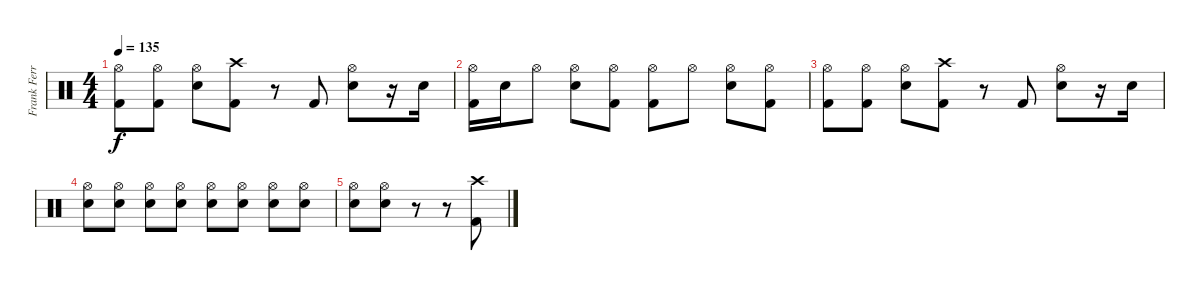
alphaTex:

\track ("Frank Ferrer" "Frank Ferr") {instrument percussion}
\staff {score}
\articulation defaults
\ts (4 4)
\tempo 135
\clef neutral
\ks c
("Hi-Hat (open)" "Kick (hit) 2").8{dy f} ("Hi-Hat (open)" "Kick (hit) 2").8 ("Hi-Hat (open)" "Electric Snare (hit)").8 ("Crash high (hit)" "Kick (hit) 2").8 r.8 "Kick (hit) 2".8 ("Hi-Hat (open)" "Electric Snare (hit)").8 r.16 "Electric Snare (hit)".16 |
("Hi-Hat (open)" "Kick (hit) 2").16 "Electric Snare (hit)".16 "Hi-Hat (open)".8 ("Hi-Hat (open)" "Electric Snare (hit)").8 ("Hi-Hat (open)" "Kick (hit) 2").8 ("Hi-Hat (open)" "Kick (hit) 2").8 "Hi-Hat (open)".8 ("Hi-Hat (open)" "Electric Snare (hit)").8 ("Hi-Hat (open)" "Kick (hit) 2").8 |
("Hi-Hat (open)" "Kick (hit) 2").8 ("Hi-Hat (open)" "Kick (hit) 2").8 ("Hi-Hat (open)" "Electric Snare (hit)").8 ("Crash high (hit)" "Kick (hit) 2").8 r.8 "Kick (hit) 2".8 ("Hi-Hat (open)" "Electric Snare (hit)").8 r.16 "Electric Snare (hit)".16 |
("Hi-Hat (open)" "Electric Snare (hit)").8 ("Hi-Hat (open)" "Electric Snare (hit)").8 ("Hi-Hat (open)" "Electric Snare (hit)").8 ("Hi-Hat (open)" "Electric Snare (hit)").8 ("Hi-Hat (open)" "Electric Snare (hit)").8 ("Hi-Hat (open)" "Electric Snare (hit)").8 ("Hi-Hat (open)" "Electric Snare (hit)").8 ("Hi-Hat (open)" "Electric Snare (hit)").8 |
("Hi-Hat (open)" "Electric Snare (hit)").8 ("Hi-Hat (open)" "Electric Snare (hit)").8 r.8 r.8 ("Kick (hit) 2" "Crash high (hit)").8
